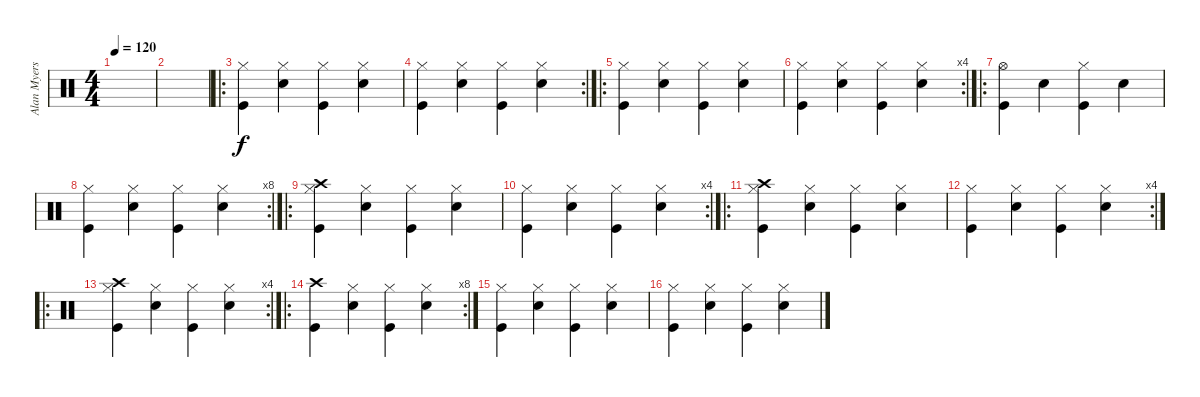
\track ("Alan Myers" "Alan Myers") {instrument percussion}
\staff {score}
\articulation defaults
\ts (4 4)
\tempo 120
\clef neutral
\ks c
|
|
\ro
("Hi-Hat (closed)" "Kick (hit)").4 ("Hi-Hat (closed)" "Electric Snare (hit)").4 ("Hi-Hat (closed)" "Kick (hit)").4 ("Hi-Hat (closed)" "Electric Snare (hit)").4 |
\rc 2
("Hi-Hat (closed)" "Kick (hit)").4 ("Hi-Hat (closed)" "Electric Snare (hit)").4 ("Hi-Hat (closed)" "Kick (hit)").4 ("Hi-Hat (closed)" "Electric Snare (hit)").4 |
\ro
("Hi-Hat (closed)" "Kick (hit)").4 ("Hi-Hat (closed)" "Electric Snare (hit)").4 ("Hi-Hat (closed)" "Kick (hit)").4 ("Hi-Hat (closed)" "Electric Snare (hit)").4 |
\rc 4
("Hi-Hat (closed)" "Kick (hit)").4 ("Hi-Hat (closed)" "Electric Snare (hit)").4 ("Hi-Hat (closed)" "Kick (hit)").4 ("Hi-Hat (closed)" "Electric Snare (hit)").4 |
\ro
("Hi-Hat (open)" "Kick (hit)").4 "Electric Snare (hit)".4 ("Hi-Hat (closed)" "Kick (hit)").4 "Electric Snare (hit)".4 |
\rc 8
("Hi-Hat (closed)" "Kick (hit)").4 ("Hi-Hat (closed)" "Electric Snare (hit)").4 ("Hi-Hat (closed)" "Kick (hit)").4 ("Hi-Hat (closed)" "Electric Snare (hit)").4 |
\ro
("Hi-Hat (closed)" "Crash high (hit)" "Kick (hit)").4 ("Hi-Hat (closed)" "Electric Snare (hit)").4 ("Hi-Hat (closed)" "Kick (hit)").4 ("Hi-Hat (closed)" "Electric Snare (hit)").4 |
\rc 4
("Hi-Hat (closed)" "Kick (hit)").4 ("Hi-Hat (closed)" "Electric Snare (hit)").4 ("Hi-Hat (closed)" "Kick (hit)").4 ("Hi-Hat (closed)" "Electric Snare (hit)").4 |
\ro
("Hi-Hat (closed)" "Crash high (hit)" "Kick (hit)").4 ("Hi-Hat (closed)" "Electric Snare (hit)").4 ("Hi-Hat (closed)" "Kick (hit)").4 ("Hi-Hat (closed)" "Electric Snare (hit)").4 |
\rc 4
("Hi-Hat (closed)" "Kick (hit)").4 ("Hi-Hat (closed)" "Electric Snare (hit)").4 ("Hi-Hat (closed)" "Kick (hit)").4 ("Hi-Hat (closed)" "Electric Snare (hit)").4 |
\ro
\rc 4
("Hi-Hat (closed)" "Crash high (hit)" "Kick (hit)").4 ("Hi-Hat (closed)" "Electric Snare (hit)").4 ("Hi-Hat (closed)" "Kick (hit)").4 ("Hi-Hat (closed)" "Electric Snare (hit)").4 |
\ro
\rc 8
("Crash high (hit)" "Kick (hit)").4 ("Hi-Hat (closed)" "Electric Snare (hit)").4 ("Hi-Hat (closed)" "Kick (hit)").4 ("Hi-Hat (closed)" "Electric Snare (hit)").4 |
("Hi-Hat (closed)" "Kick (hit)").4 ("Hi-Hat (closed)" "Electric Snare (hit)").4 ("Hi-Hat (closed)" "Kick (hit)").4 ("Hi-Hat (closed)" "Electric Snare (hit)").4 |
("Hi-Hat (closed)" "Kick (hit)").4 ("Hi-Hat (closed)" "Electric Snare (hit)").4 ("Hi-Hat (closed)" "Kick (hit)").4 ("Hi-Hat (closed)" "Electric Snare (hit)").4
